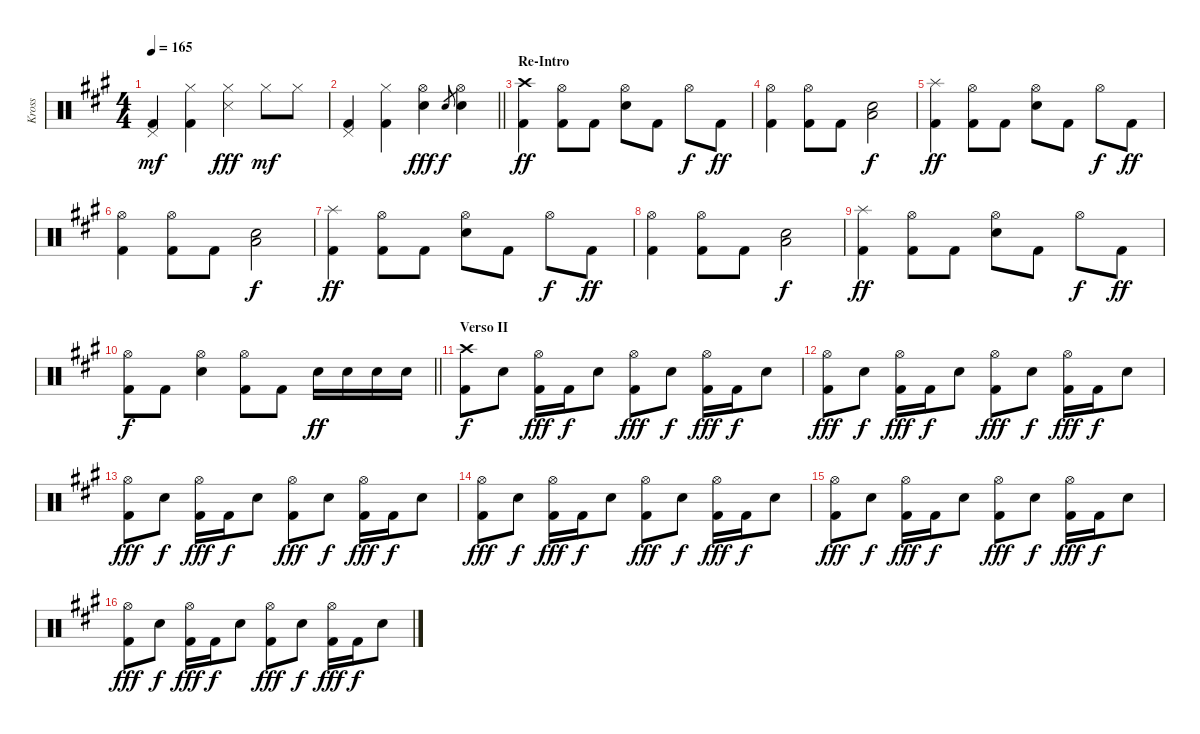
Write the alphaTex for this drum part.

\track ("Kross" "Kross") {instrument percussion}
\staff {score}
\articulation defaults
\ts (4 4)
\tempo 165
\clef neutral
\ks a
("Pedal Hi-Hat (hit)" "Kick (hit) 2").4{dy mf} ("Hi-Hat (closed)" "Kick (hit) 2").4 ("Hi-Hat (closed)" "Metronome (hit)").4{dy fff} "Hi-Hat (closed)".8{dy mf} "Hi-Hat (closed)".8 |
\barLineRight lightlight
("Pedal Hi-Hat (hit)" "Kick (hit) 2").4 ("Hi-Hat (closed)" "Kick (hit) 2").4 ("Hi-Hat (open)" "Snare (hit) 2").4{dy fff} "Electric Snare (hit)".8{gr dy f} ("Hi-Hat (open)" "Electric Snare (hit)").4 |
\section ("" "Re-Intro")
("Crash high (hit)" "Kick (hit) 2").4{dy ff} ("Hi-Hat (open)" "Kick (hit) 2").8 "Kick (hit) 2".8 ("Hi-Hat (open)" "Snare (hit) 2").8 "Kick (hit) 2".8 "Hi-Hat (open)".8{dy f} "Kick (hit) 2".8{dy ff} |
("Hi-Hat (open)" "Kick (hit) 2").4 ("Hi-Hat (open)" "Kick (hit) 2").8 "Kick (hit) 2".8 ("Snare (hit) 2" "Low Floor Tom (hit)").2{dy f} |
("Splash (hit)" "Kick (hit) 2").4{dy ff} ("Hi-Hat (open)" "Kick (hit) 2").8 "Kick (hit) 2".8 ("Hi-Hat (open)" "Snare (hit) 2").8 "Kick (hit) 2".8 "Hi-Hat (open)".8{dy f} "Kick (hit) 2".8{dy ff} |
("Hi-Hat (open)" "Kick (hit) 2").4 ("Hi-Hat (open)" "Kick (hit) 2").8 "Kick (hit) 2".8 ("Snare (hit) 2" "Low Floor Tom (hit)").2{dy f} |
("Splash (hit)" "Kick (hit) 2").4{dy ff} ("Hi-Hat (open)" "Kick (hit) 2").8 "Kick (hit) 2".8 ("Hi-Hat (open)" "Snare (hit) 2").8 "Kick (hit) 2".8 "Hi-Hat (open)".8{dy f} "Kick (hit) 2".8{dy ff} |
("Hi-Hat (open)" "Kick (hit) 2").4 ("Hi-Hat (open)" "Kick (hit) 2").8 "Kick (hit) 2".8 ("Snare (hit) 2" "Low Floor Tom (hit)").2{dy f} |
("Splash (hit)" "Kick (hit) 2").4{dy ff} ("Hi-Hat (open)" "Kick (hit) 2").8 "Kick (hit) 2".8 ("Hi-Hat (open)" "Snare (hit) 2").8 "Kick (hit) 2".8 "Hi-Hat (open)".8{dy f} "Kick (hit) 2".8{dy ff} |
\barLineRight lightlight
("Hi-Hat (open)" "Kick (hit) 2").8{dy f} "Kick (hit) 2".8 ("Hi-Hat (open)" "Snare (hit) 2").4 ("Hi-Hat (open)" "Kick (hit) 2").8 "Kick (hit) 2".8 "Snare (hit) 2".16{dy ff} "Snare (hit) 2".16 "Snare (hit) 2".16 "Snare (hit) 2".16 |
\section ("" "Verso II")
("Crash high (hit)" "Kick (hit) 2").8{dy f} "Snare (hit) 2".8 ("Hi-Hat (open)" "Kick (hit) 2").16{dy fff} "Kick (hit) 2".16{dy f} "Snare (hit) 2".8 ("Hi-Hat (open)" "Kick (hit) 2").8{dy fff} "Snare (hit) 2".8{dy f} ("Hi-Hat (open)" "Kick (hit) 2").16{dy fff} "Kick (hit) 2".16{dy f} "Snare (hit) 2".8 |
("Hi-Hat (open)" "Kick (hit) 2").8{dy fff} "Snare (hit) 2".8{dy f} ("Hi-Hat (open)" "Kick (hit) 2").16{dy fff} "Kick (hit) 2".16{dy f} "Snare (hit) 2".8 ("Hi-Hat (open)" "Kick (hit) 2").8{dy fff} "Snare (hit) 2".8{dy f} ("Hi-Hat (open)" "Kick (hit) 2").16{dy fff} "Kick (hit) 2".16{dy f} "Snare (hit) 2".8 |
("Hi-Hat (open)" "Kick (hit) 2").8{dy fff} "Snare (hit) 2".8{dy f} ("Hi-Hat (open)" "Kick (hit) 2").16{dy fff} "Kick (hit) 2".16{dy f} "Snare (hit) 2".8 ("Hi-Hat (open)" "Kick (hit) 2").8{dy fff} "Snare (hit) 2".8{dy f} ("Hi-Hat (open)" "Kick (hit) 2").16{dy fff} "Kick (hit) 2".16{dy f} "Snare (hit) 2".8 |
("Hi-Hat (open)" "Kick (hit) 2").8{dy fff} "Snare (hit) 2".8{dy f} ("Hi-Hat (open)" "Kick (hit) 2").16{dy fff} "Kick (hit) 2".16{dy f} "Snare (hit) 2".8 ("Hi-Hat (open)" "Kick (hit) 2").8{dy fff} "Snare (hit) 2".8{dy f} ("Hi-Hat (open)" "Kick (hit) 2").16{dy fff} "Kick (hit) 2".16{dy f} "Snare (hit) 2".8 |
("Hi-Hat (open)" "Kick (hit) 2").8{dy fff} "Snare (hit) 2".8{dy f} ("Hi-Hat (open)" "Kick (hit) 2").16{dy fff} "Kick (hit) 2".16{dy f} "Snare (hit) 2".8 ("Hi-Hat (open)" "Kick (hit) 2").8{dy fff} "Snare (hit) 2".8{dy f} ("Hi-Hat (open)" "Kick (hit) 2").16{dy fff} "Kick (hit) 2".16{dy f} "Snare (hit) 2".8 |
("Hi-Hat (open)" "Kick (hit) 2").8{dy fff} "Snare (hit) 2".8{dy f} ("Hi-Hat (open)" "Kick (hit) 2").16{dy fff} "Kick (hit) 2".16{dy f} "Snare (hit) 2".8 ("Hi-Hat (open)" "Kick (hit) 2").8{dy fff} "Snare (hit) 2".8{dy f} ("Hi-Hat (open)" "Kick (hit) 2").16{dy fff} "Kick (hit) 2".16{dy f} "Snare (hit) 2".8
